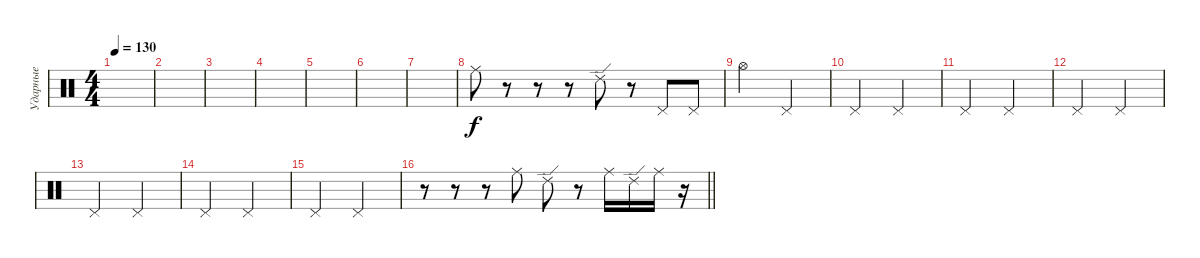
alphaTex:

\track ("Ударные" "Ударные") {instrument percussion}
\staff {score}
\articulation defaults
\ts (4 4)
\tempo 130
\clef neutral
\ks c
|
|
|
|
|
|
|
"Ride (middle)".8 r.8 r.8 r.8 "Ride (edge) 2".8 r.8 "Pedal Hi-Hat (hit)".8 "Pedal Hi-Hat (hit)".8 |
"Hi-Hat (open)".2 "Pedal Hi-Hat (hit)".2 |
"Pedal Hi-Hat (hit)".2 "Pedal Hi-Hat (hit)".2 |
"Pedal Hi-Hat (hit)".2 "Pedal Hi-Hat (hit)".2 |
"Pedal Hi-Hat (hit)".2 "Pedal Hi-Hat (hit)".2 |
"Pedal Hi-Hat (hit)".2 "Pedal Hi-Hat (hit)".2 |
"Pedal Hi-Hat (hit)".2 "Pedal Hi-Hat (hit)".2 |
"Pedal Hi-Hat (hit)".2 "Pedal Hi-Hat (hit)".2 |
\barLineRight lightlight
r.8 r.8 r.8 "Ride (middle)".8 "Ride (edge) 2".8 r.8 "Ride (middle)".16 "Ride (edge) 2".16 "Ride (middle)".16 r.16
